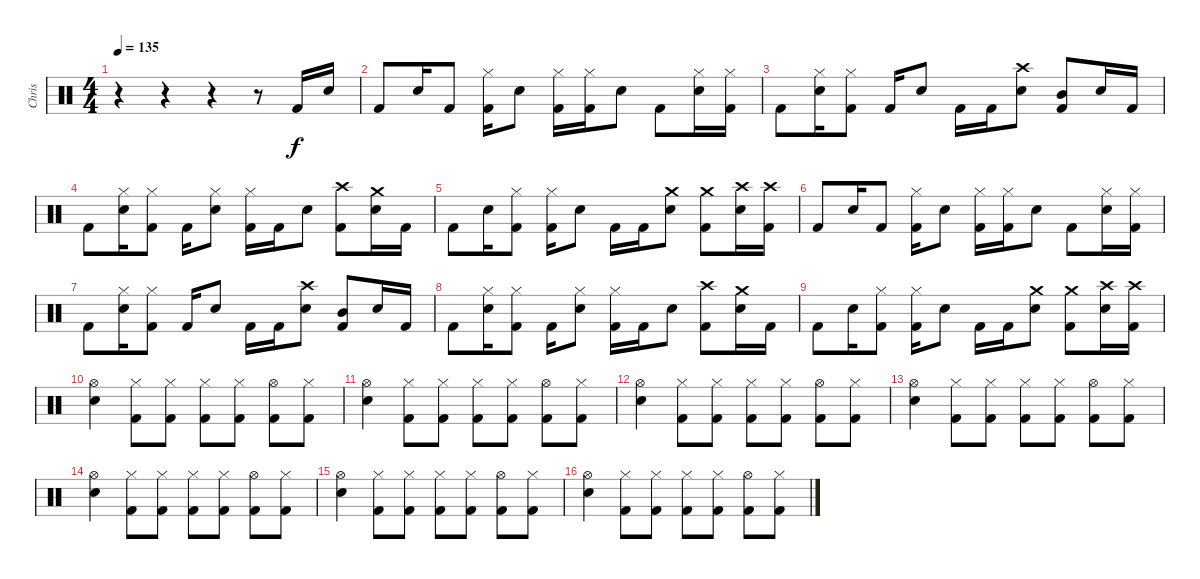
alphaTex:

\track ("Chris" "Chris") {instrument percussion}
\staff {score}
\articulation defaults
\ts (4 4)
\tempo 135
\clef neutral
\ks c
r.4{dy f} r.4 r.4 r.8 "Kick (hit) 2".16 "Snare (hit) 2".16 |
"Kick (hit) 2".8 "Snare (hit) 2".16 "Kick (hit) 2".8 ("Hi-Hat (closed)" "Kick (hit) 2").16 "Snare (hit) 2".8 ("Hi-Hat (closed)" "Kick (hit) 2").16 ("Hi-Hat (closed)" "Kick (hit) 2").16 "Snare (hit) 2".8 "Kick (hit) 2".8 ("Hi-Hat (closed)" "Snare (hit) 2").16 ("Hi-Hat (closed)" "Kick (hit) 2").16 |
"Kick (hit) 2".8 ("Hi-Hat (closed)" "Snare (hit) 2").16 ("Hi-Hat (closed)" "Kick (hit) 2").8 "Kick (hit) 2".16 "Snare (hit) 2".8 "Kick (hit) 2".16 "Kick (hit) 2".16 ("Crash high (hit)" "Snare (hit) 2").8 ("Mid Tom (hit)" "Kick (hit) 2").8 "Snare (hit) 2".16 "Kick (hit) 2".16 |
"Kick (hit) 2".8 ("Hi-Hat (closed)" "Snare (hit) 2").16 ("Hi-Hat (closed)" "Kick (hit) 2").8 "Kick (hit) 2".16 ("Hi-Hat (closed)" "Snare (hit) 2").8 ("Hi-Hat (closed)" "Kick (hit) 2").16 "Kick (hit) 2".16 "Snare (hit) 2".8 ("Crash high (hit)" "Kick (hit) 2").8 ("Crash medium (hit)" "Snare (hit) 2").16 "Kick (hit) 2".16 |
"Kick (hit) 2".8 "Snare (hit) 2".16 ("Hi-Hat (closed)" "Kick (hit) 2").8 ("Hi-Hat (closed)" "Kick (hit) 2").16 "Snare (hit) 2".8 "Kick (hit) 2".16 "Kick (hit) 2".16 ("Crash medium (hit)" "Snare (hit) 2").8 ("Crash medium (hit)" "Kick (hit) 2").8 ("Crash high (hit)" "Snare (hit) 2").16 ("Crash high (hit)" "Kick (hit) 2").16 |
"Kick (hit) 2".8 "Snare (hit) 2".16 "Kick (hit) 2".8 ("Hi-Hat (closed)" "Kick (hit) 2").16 "Snare (hit) 2".8 ("Hi-Hat (closed)" "Kick (hit) 2").16 ("Hi-Hat (closed)" "Kick (hit) 2").16 "Snare (hit) 2".8 "Kick (hit) 2".8 ("Hi-Hat (closed)" "Snare (hit) 2").16 ("Hi-Hat (closed)" "Kick (hit) 2").16 |
"Kick (hit) 2".8 ("Hi-Hat (closed)" "Snare (hit) 2").16 ("Hi-Hat (closed)" "Kick (hit) 2").8 "Kick (hit) 2".16 "Snare (hit) 2".8 "Kick (hit) 2".16 "Kick (hit) 2".16 ("Crash high (hit)" "Snare (hit) 2").8 ("Mid Tom (hit)" "Kick (hit) 2").8 "Snare (hit) 2".16 "Kick (hit) 2".16 |
"Kick (hit) 2".8 ("Hi-Hat (closed)" "Snare (hit) 2").16 ("Hi-Hat (closed)" "Kick (hit) 2").8 "Kick (hit) 2".16 ("Hi-Hat (closed)" "Snare (hit) 2").8 ("Hi-Hat (closed)" "Kick (hit) 2").16 "Kick (hit) 2".16 "Snare (hit) 2".8 ("Crash high (hit)" "Kick (hit) 2").8 ("Crash medium (hit)" "Snare (hit) 2").16 "Kick (hit) 2".16 |
"Kick (hit) 2".8 "Snare (hit) 2".16 ("Hi-Hat (closed)" "Kick (hit) 2").8 ("Hi-Hat (closed)" "Kick (hit) 2").16 "Snare (hit) 2".8 "Kick (hit) 2".16 "Kick (hit) 2".16 ("Crash medium (hit)" "Snare (hit) 2").8 ("Crash medium (hit)" "Kick (hit) 2").8 ("Crash high (hit)" "Snare (hit) 2").16 ("Crash high (hit)" "Kick (hit) 2").16 |
("Hi-Hat (open)" "Snare (hit) 2").4 ("Hi-Hat (closed)" "Kick (hit) 2").8 ("Hi-Hat (closed)" "Kick (hit) 2").8 ("Hi-Hat (closed)" "Kick (hit) 2").8 ("Hi-Hat (closed)" "Kick (hit) 2").8 ("Hi-Hat (open)" "Kick (hit) 2").8 ("Hi-Hat (closed)" "Kick (hit) 2").8 |
("Hi-Hat (open)" "Snare (hit) 2").4 ("Hi-Hat (closed)" "Kick (hit) 2").8 ("Hi-Hat (closed)" "Kick (hit) 2").8 ("Hi-Hat (closed)" "Kick (hit) 2").8 ("Hi-Hat (closed)" "Kick (hit) 2").8 ("Hi-Hat (open)" "Kick (hit) 2").8 ("Hi-Hat (closed)" "Kick (hit) 2").8 |
("Hi-Hat (open)" "Snare (hit) 2").4 ("Hi-Hat (closed)" "Kick (hit) 2").8 ("Hi-Hat (closed)" "Kick (hit) 2").8 ("Hi-Hat (closed)" "Kick (hit) 2").8 ("Hi-Hat (closed)" "Kick (hit) 2").8 ("Hi-Hat (open)" "Kick (hit) 2").8 ("Hi-Hat (closed)" "Kick (hit) 2").8 |
("Hi-Hat (open)" "Snare (hit) 2").4 ("Hi-Hat (closed)" "Kick (hit) 2").8 ("Hi-Hat (closed)" "Kick (hit) 2").8 ("Hi-Hat (closed)" "Kick (hit) 2").8 ("Hi-Hat (closed)" "Kick (hit) 2").8 ("Hi-Hat (open)" "Kick (hit) 2").8 ("Hi-Hat (closed)" "Kick (hit) 2").8 |
("Hi-Hat (open)" "Snare (hit) 2").4 ("Hi-Hat (closed)" "Kick (hit) 2").8 ("Hi-Hat (closed)" "Kick (hit) 2").8 ("Hi-Hat (closed)" "Kick (hit) 2").8 ("Hi-Hat (closed)" "Kick (hit) 2").8 ("Hi-Hat (open)" "Kick (hit) 2").8 ("Hi-Hat (closed)" "Kick (hit) 2").8 |
("Hi-Hat (open)" "Snare (hit) 2").4 ("Hi-Hat (closed)" "Kick (hit) 2").8 ("Hi-Hat (closed)" "Kick (hit) 2").8 ("Hi-Hat (closed)" "Kick (hit) 2").8 ("Hi-Hat (closed)" "Kick (hit) 2").8 ("Hi-Hat (open)" "Kick (hit) 2").8 ("Hi-Hat (closed)" "Kick (hit) 2").8 |
("Hi-Hat (open)" "Snare (hit) 2").4 ("Hi-Hat (closed)" "Kick (hit) 2").8 ("Hi-Hat (closed)" "Kick (hit) 2").8 ("Hi-Hat (closed)" "Kick (hit) 2").8 ("Hi-Hat (closed)" "Kick (hit) 2").8 ("Hi-Hat (open)" "Kick (hit) 2").8 ("Hi-Hat (closed)" "Kick (hit) 2").8
